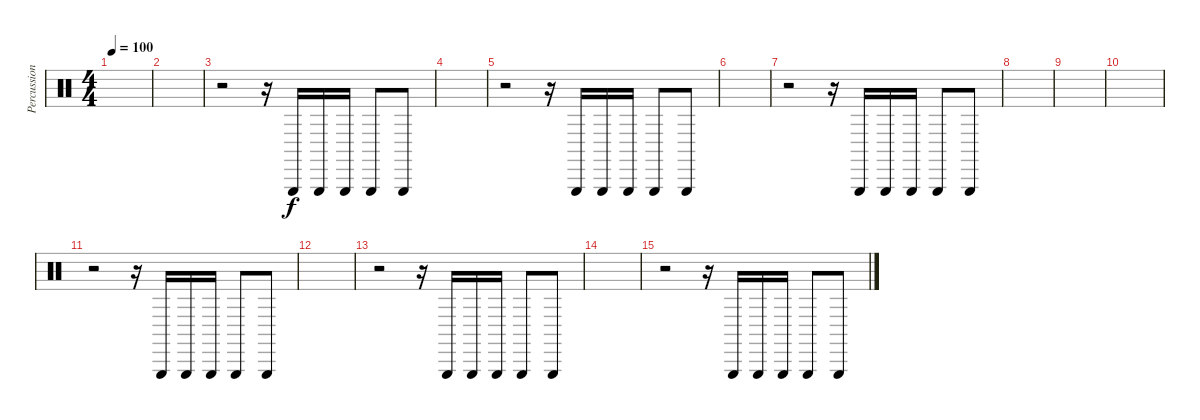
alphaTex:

\track ("Percussion" "Percussion") {instrument percussion}
\staff
\articulation defaults
\ts (4 4)
\tempo 100
\clef neutral
\ks c
|
|
r.2 r.16 "Triangle (hit)".16 "Triangle (hit)".16 "Triangle (hit)".16 "Triangle (hit)".8 "Triangle (hit)".8 |
|
r.2 r.16 "Triangle (hit)".16 "Triangle (hit)".16 "Triangle (hit)".16 "Triangle (hit)".8 "Triangle (hit)".8 |
|
r.2 r.16 "Triangle (hit)".16 "Triangle (hit)".16 "Triangle (hit)".16 "Triangle (hit)".8 "Triangle (hit)".8 |
|
|
|
r.2 r.16 "Triangle (hit)".16 "Triangle (hit)".16 "Triangle (hit)".16 "Triangle (hit)".8 "Triangle (hit)".8 |
|
r.2 r.16 "Triangle (hit)".16 "Triangle (hit)".16 "Triangle (hit)".16 "Triangle (hit)".8 "Triangle (hit)".8 |
|
r.2 r.16 "Triangle (hit)".16 "Triangle (hit)".16 "Triangle (hit)".16 "Triangle (hit)".8 "Triangle (hit)".8
